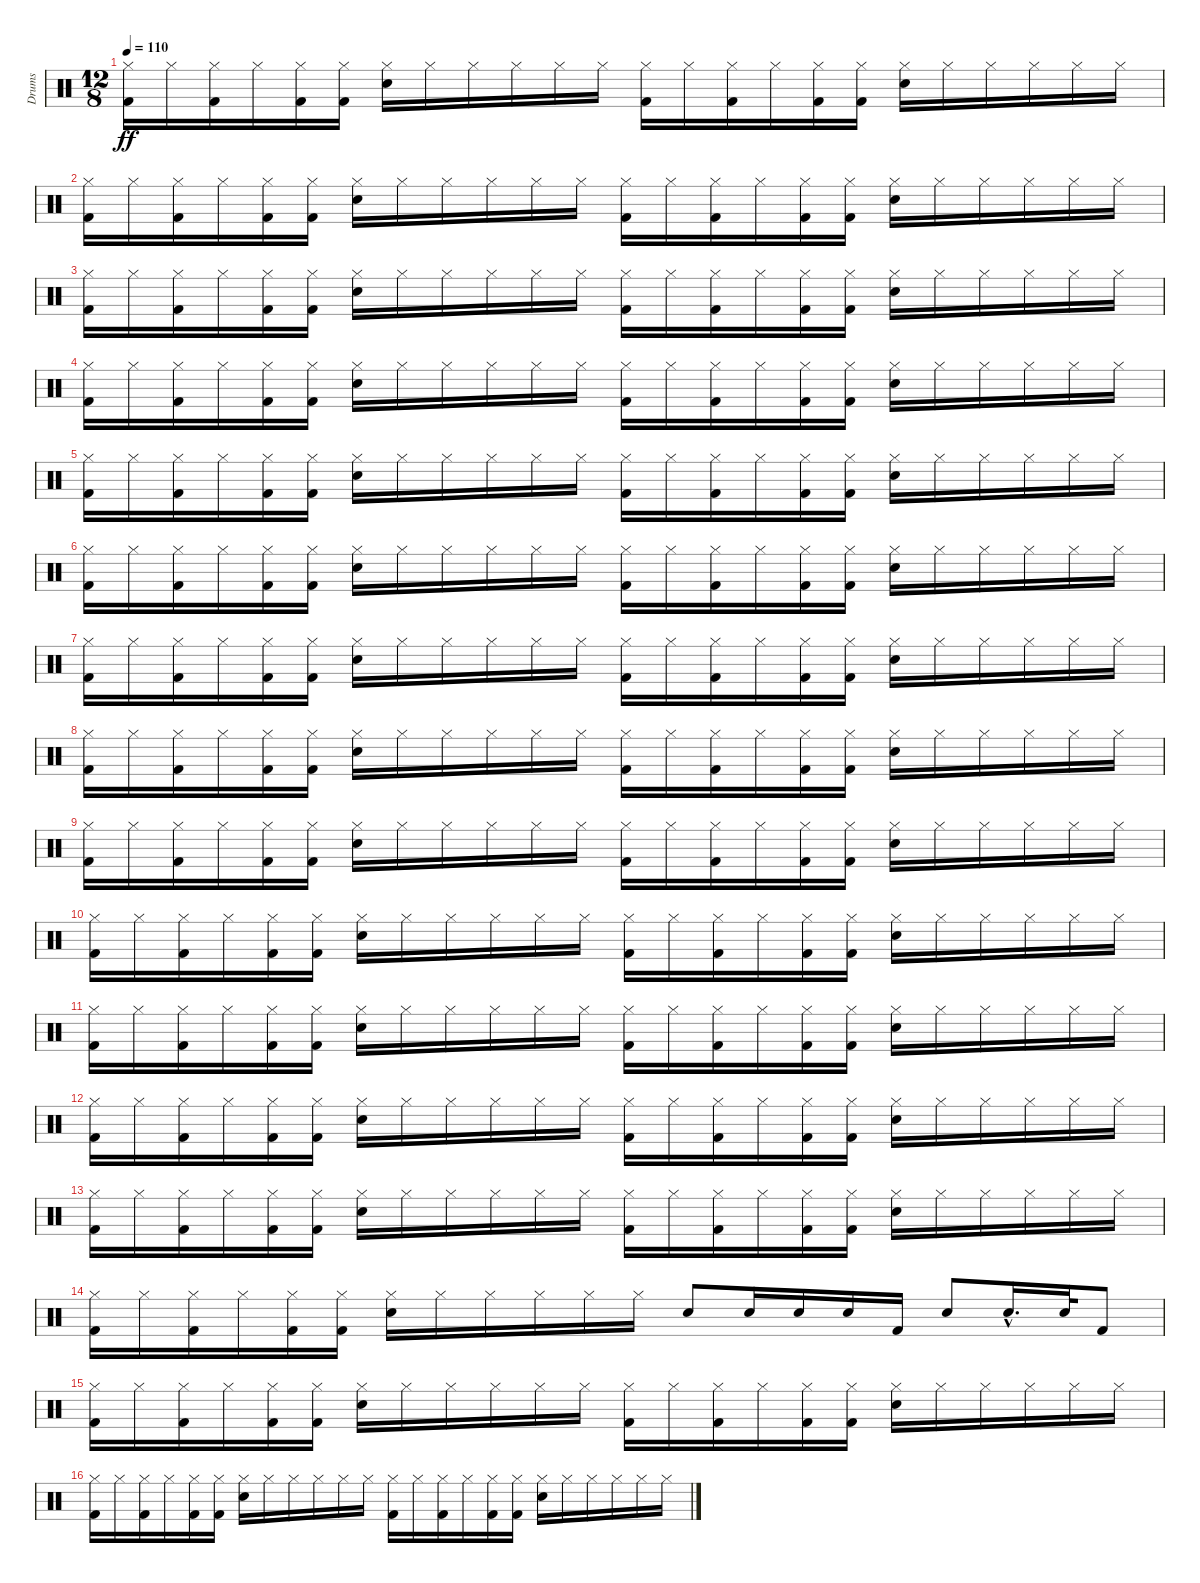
\track ("Drums" "Drums") {instrument percussion}
\staff {score}
\articulation defaults
\ts (12 8)
\tempo 110
\clef neutral
\ks c
("Kick (hit) 2" "Hi-Hat (closed)").16{dy ff} "Hi-Hat (closed)".16 ("Kick (hit) 2" "Hi-Hat (closed)").16 "Hi-Hat (closed)".16 ("Kick (hit) 2" "Hi-Hat (closed)").16 ("Kick (hit) 2" "Hi-Hat (closed)").16 ("Snare (hit) 2" "Hi-Hat (closed)").16 "Hi-Hat (closed)".16 "Hi-Hat (closed)".16 "Hi-Hat (closed)".16 "Hi-Hat (closed)".16 "Hi-Hat (closed)".16 ("Kick (hit) 2" "Hi-Hat (closed)").16 "Hi-Hat (closed)".16 ("Kick (hit) 2" "Hi-Hat (closed)").16 "Hi-Hat (closed)".16 ("Kick (hit) 2" "Hi-Hat (closed)").16 ("Kick (hit) 2" "Hi-Hat (closed)").16 ("Snare (hit) 2" "Hi-Hat (closed)").16 "Hi-Hat (closed)".16 "Hi-Hat (closed)".16 "Hi-Hat (closed)".16 "Hi-Hat (closed)".16 "Hi-Hat (closed)".16 |
("Kick (hit) 2" "Hi-Hat (closed)").16 "Hi-Hat (closed)".16 ("Kick (hit) 2" "Hi-Hat (closed)").16 "Hi-Hat (closed)".16 ("Kick (hit) 2" "Hi-Hat (closed)").16 ("Kick (hit) 2" "Hi-Hat (closed)").16 ("Snare (hit) 2" "Hi-Hat (closed)").16 "Hi-Hat (closed)".16 "Hi-Hat (closed)".16 "Hi-Hat (closed)".16 "Hi-Hat (closed)".16 "Hi-Hat (closed)".16 ("Kick (hit) 2" "Hi-Hat (closed)").16 "Hi-Hat (closed)".16 ("Kick (hit) 2" "Hi-Hat (closed)").16 "Hi-Hat (closed)".16 ("Kick (hit) 2" "Hi-Hat (closed)").16 ("Kick (hit) 2" "Hi-Hat (closed)").16 ("Snare (hit) 2" "Hi-Hat (closed)").16 "Hi-Hat (closed)".16 "Hi-Hat (closed)".16 "Hi-Hat (closed)".16 "Hi-Hat (closed)".16 "Hi-Hat (closed)".16 |
("Kick (hit) 2" "Hi-Hat (closed)").16 "Hi-Hat (closed)".16 ("Kick (hit) 2" "Hi-Hat (closed)").16 "Hi-Hat (closed)".16 ("Kick (hit) 2" "Hi-Hat (closed)").16 ("Kick (hit) 2" "Hi-Hat (closed)").16 ("Snare (hit) 2" "Hi-Hat (closed)").16 "Hi-Hat (closed)".16 "Hi-Hat (closed)".16 "Hi-Hat (closed)".16 "Hi-Hat (closed)".16 "Hi-Hat (closed)".16 ("Kick (hit) 2" "Hi-Hat (closed)").16 "Hi-Hat (closed)".16 ("Kick (hit) 2" "Hi-Hat (closed)").16 "Hi-Hat (closed)".16 ("Kick (hit) 2" "Hi-Hat (closed)").16 ("Kick (hit) 2" "Hi-Hat (closed)").16 ("Snare (hit) 2" "Hi-Hat (closed)").16 "Hi-Hat (closed)".16 "Hi-Hat (closed)".16 "Hi-Hat (closed)".16 "Hi-Hat (closed)".16 "Hi-Hat (closed)".16 |
("Kick (hit) 2" "Hi-Hat (closed)").16 "Hi-Hat (closed)".16 ("Kick (hit) 2" "Hi-Hat (closed)").16 "Hi-Hat (closed)".16 ("Kick (hit) 2" "Hi-Hat (closed)").16 ("Kick (hit) 2" "Hi-Hat (closed)").16 ("Snare (hit) 2" "Hi-Hat (closed)").16 "Hi-Hat (closed)".16 "Hi-Hat (closed)".16 "Hi-Hat (closed)".16 "Hi-Hat (closed)".16 "Hi-Hat (closed)".16 ("Kick (hit) 2" "Hi-Hat (closed)").16 "Hi-Hat (closed)".16 ("Kick (hit) 2" "Hi-Hat (closed)").16 "Hi-Hat (closed)".16 ("Kick (hit) 2" "Hi-Hat (closed)").16 ("Kick (hit) 2" "Hi-Hat (closed)").16 ("Snare (hit) 2" "Hi-Hat (closed)").16 "Hi-Hat (closed)".16 "Hi-Hat (closed)".16 "Hi-Hat (closed)".16 "Hi-Hat (closed)".16 "Hi-Hat (closed)".16 |
("Kick (hit) 2" "Hi-Hat (closed)").16 "Hi-Hat (closed)".16 ("Kick (hit) 2" "Hi-Hat (closed)").16 "Hi-Hat (closed)".16 ("Kick (hit) 2" "Hi-Hat (closed)").16 ("Kick (hit) 2" "Hi-Hat (closed)").16 ("Snare (hit) 2" "Hi-Hat (closed)").16 "Hi-Hat (closed)".16 "Hi-Hat (closed)".16 "Hi-Hat (closed)".16 "Hi-Hat (closed)".16 "Hi-Hat (closed)".16 ("Kick (hit) 2" "Hi-Hat (closed)").16 "Hi-Hat (closed)".16 ("Kick (hit) 2" "Hi-Hat (closed)").16 "Hi-Hat (closed)".16 ("Kick (hit) 2" "Hi-Hat (closed)").16 ("Kick (hit) 2" "Hi-Hat (closed)").16 ("Snare (hit) 2" "Hi-Hat (closed)").16 "Hi-Hat (closed)".16 "Hi-Hat (closed)".16 "Hi-Hat (closed)".16 "Hi-Hat (closed)".16 "Hi-Hat (closed)".16 |
("Kick (hit) 2" "Hi-Hat (closed)").16 "Hi-Hat (closed)".16 ("Kick (hit) 2" "Hi-Hat (closed)").16 "Hi-Hat (closed)".16 ("Kick (hit) 2" "Hi-Hat (closed)").16 ("Kick (hit) 2" "Hi-Hat (closed)").16 ("Snare (hit) 2" "Hi-Hat (closed)").16 "Hi-Hat (closed)".16 "Hi-Hat (closed)".16 "Hi-Hat (closed)".16 "Hi-Hat (closed)".16 "Hi-Hat (closed)".16 ("Kick (hit) 2" "Hi-Hat (closed)").16 "Hi-Hat (closed)".16 ("Kick (hit) 2" "Hi-Hat (closed)").16 "Hi-Hat (closed)".16 ("Kick (hit) 2" "Hi-Hat (closed)").16 ("Kick (hit) 2" "Hi-Hat (closed)").16 ("Snare (hit) 2" "Hi-Hat (closed)").16 "Hi-Hat (closed)".16 "Hi-Hat (closed)".16 "Hi-Hat (closed)".16 "Hi-Hat (closed)".16 "Hi-Hat (closed)".16 |
("Kick (hit) 2" "Hi-Hat (closed)").16 "Hi-Hat (closed)".16 ("Kick (hit) 2" "Hi-Hat (closed)").16 "Hi-Hat (closed)".16 ("Kick (hit) 2" "Hi-Hat (closed)").16 ("Kick (hit) 2" "Hi-Hat (closed)").16 ("Snare (hit) 2" "Hi-Hat (closed)").16 "Hi-Hat (closed)".16 "Hi-Hat (closed)".16 "Hi-Hat (closed)".16 "Hi-Hat (closed)".16 "Hi-Hat (closed)".16 ("Kick (hit) 2" "Hi-Hat (closed)").16 "Hi-Hat (closed)".16 ("Kick (hit) 2" "Hi-Hat (closed)").16 "Hi-Hat (closed)".16 ("Kick (hit) 2" "Hi-Hat (closed)").16 ("Kick (hit) 2" "Hi-Hat (closed)").16 ("Snare (hit) 2" "Hi-Hat (closed)").16 "Hi-Hat (closed)".16 "Hi-Hat (closed)".16 "Hi-Hat (closed)".16 "Hi-Hat (closed)".16 "Hi-Hat (closed)".16 |
("Kick (hit) 2" "Hi-Hat (closed)").16 "Hi-Hat (closed)".16 ("Kick (hit) 2" "Hi-Hat (closed)").16 "Hi-Hat (closed)".16 ("Kick (hit) 2" "Hi-Hat (closed)").16 ("Kick (hit) 2" "Hi-Hat (closed)").16 ("Snare (hit) 2" "Hi-Hat (closed)").16 "Hi-Hat (closed)".16 "Hi-Hat (closed)".16 "Hi-Hat (closed)".16 "Hi-Hat (closed)".16 "Hi-Hat (closed)".16 ("Kick (hit) 2" "Hi-Hat (closed)").16 "Hi-Hat (closed)".16 ("Kick (hit) 2" "Hi-Hat (closed)").16 "Hi-Hat (closed)".16 ("Kick (hit) 2" "Hi-Hat (closed)").16 ("Kick (hit) 2" "Hi-Hat (closed)").16 ("Snare (hit) 2" "Hi-Hat (closed)").16 "Hi-Hat (closed)".16 "Hi-Hat (closed)".16 "Hi-Hat (closed)".16 "Hi-Hat (closed)".16 "Hi-Hat (closed)".16 |
("Kick (hit) 2" "Hi-Hat (closed)").16 "Hi-Hat (closed)".16 ("Kick (hit) 2" "Hi-Hat (closed)").16 "Hi-Hat (closed)".16 ("Kick (hit) 2" "Hi-Hat (closed)").16 ("Kick (hit) 2" "Hi-Hat (closed)").16 ("Snare (hit) 2" "Hi-Hat (closed)").16 "Hi-Hat (closed)".16 "Hi-Hat (closed)".16 "Hi-Hat (closed)".16 "Hi-Hat (closed)".16 "Hi-Hat (closed)".16 ("Kick (hit) 2" "Hi-Hat (closed)").16 "Hi-Hat (closed)".16 ("Kick (hit) 2" "Hi-Hat (closed)").16 "Hi-Hat (closed)".16 ("Kick (hit) 2" "Hi-Hat (closed)").16 ("Kick (hit) 2" "Hi-Hat (closed)").16 ("Snare (hit) 2" "Hi-Hat (closed)").16 "Hi-Hat (closed)".16 "Hi-Hat (closed)".16 "Hi-Hat (closed)".16 "Hi-Hat (closed)".16 "Hi-Hat (closed)".16 |
("Kick (hit) 2" "Hi-Hat (closed)").16 "Hi-Hat (closed)".16 ("Kick (hit) 2" "Hi-Hat (closed)").16 "Hi-Hat (closed)".16 ("Kick (hit) 2" "Hi-Hat (closed)").16 ("Kick (hit) 2" "Hi-Hat (closed)").16 ("Snare (hit) 2" "Hi-Hat (closed)").16 "Hi-Hat (closed)".16 "Hi-Hat (closed)".16 "Hi-Hat (closed)".16 "Hi-Hat (closed)".16 "Hi-Hat (closed)".16 ("Kick (hit) 2" "Hi-Hat (closed)").16 "Hi-Hat (closed)".16 ("Kick (hit) 2" "Hi-Hat (closed)").16 "Hi-Hat (closed)".16 ("Kick (hit) 2" "Hi-Hat (closed)").16 ("Kick (hit) 2" "Hi-Hat (closed)").16 ("Snare (hit) 2" "Hi-Hat (closed)").16 "Hi-Hat (closed)".16 "Hi-Hat (closed)".16 "Hi-Hat (closed)".16 "Hi-Hat (closed)".16 "Hi-Hat (closed)".16 |
("Kick (hit) 2" "Hi-Hat (closed)").16 "Hi-Hat (closed)".16 ("Kick (hit) 2" "Hi-Hat (closed)").16 "Hi-Hat (closed)".16 ("Kick (hit) 2" "Hi-Hat (closed)").16 ("Kick (hit) 2" "Hi-Hat (closed)").16 ("Snare (hit) 2" "Hi-Hat (closed)").16 "Hi-Hat (closed)".16 "Hi-Hat (closed)".16 "Hi-Hat (closed)".16 "Hi-Hat (closed)".16 "Hi-Hat (closed)".16 ("Kick (hit) 2" "Hi-Hat (closed)").16 "Hi-Hat (closed)".16 ("Kick (hit) 2" "Hi-Hat (closed)").16 "Hi-Hat (closed)".16 ("Kick (hit) 2" "Hi-Hat (closed)").16 ("Kick (hit) 2" "Hi-Hat (closed)").16 ("Snare (hit) 2" "Hi-Hat (closed)").16 "Hi-Hat (closed)".16 "Hi-Hat (closed)".16 "Hi-Hat (closed)".16 "Hi-Hat (closed)".16 "Hi-Hat (closed)".16 |
("Kick (hit) 2" "Hi-Hat (closed)").16 "Hi-Hat (closed)".16 ("Kick (hit) 2" "Hi-Hat (closed)").16 "Hi-Hat (closed)".16 ("Kick (hit) 2" "Hi-Hat (closed)").16 ("Kick (hit) 2" "Hi-Hat (closed)").16 ("Snare (hit) 2" "Hi-Hat (closed)").16 "Hi-Hat (closed)".16 "Hi-Hat (closed)".16 "Hi-Hat (closed)".16 "Hi-Hat (closed)".16 "Hi-Hat (closed)".16 ("Kick (hit) 2" "Hi-Hat (closed)").16 "Hi-Hat (closed)".16 ("Kick (hit) 2" "Hi-Hat (closed)").16 "Hi-Hat (closed)".16 ("Kick (hit) 2" "Hi-Hat (closed)").16 ("Kick (hit) 2" "Hi-Hat (closed)").16 ("Snare (hit) 2" "Hi-Hat (closed)").16 "Hi-Hat (closed)".16 "Hi-Hat (closed)".16 "Hi-Hat (closed)".16 "Hi-Hat (closed)".16 "Hi-Hat (closed)".16 |
("Kick (hit) 2" "Hi-Hat (closed)").16 "Hi-Hat (closed)".16 ("Kick (hit) 2" "Hi-Hat (closed)").16 "Hi-Hat (closed)".16 ("Kick (hit) 2" "Hi-Hat (closed)").16 ("Kick (hit) 2" "Hi-Hat (closed)").16 ("Snare (hit) 2" "Hi-Hat (closed)").16 "Hi-Hat (closed)".16 "Hi-Hat (closed)".16 "Hi-Hat (closed)".16 "Hi-Hat (closed)".16 "Hi-Hat (closed)".16 ("Kick (hit) 2" "Hi-Hat (closed)").16 "Hi-Hat (closed)".16 ("Kick (hit) 2" "Hi-Hat (closed)").16 "Hi-Hat (closed)".16 ("Kick (hit) 2" "Hi-Hat (closed)").16 ("Kick (hit) 2" "Hi-Hat (closed)").16 ("Snare (hit) 2" "Hi-Hat (closed)").16 "Hi-Hat (closed)".16 "Hi-Hat (closed)".16 "Hi-Hat (closed)".16 "Hi-Hat (closed)".16 "Hi-Hat (closed)".16 |
("Kick (hit) 2" "Hi-Hat (closed)").16 "Hi-Hat (closed)".16 ("Kick (hit) 2" "Hi-Hat (closed)").16 "Hi-Hat (closed)".16 ("Kick (hit) 2" "Hi-Hat (closed)").16 ("Kick (hit) 2" "Hi-Hat (closed)").16 ("Snare (hit) 2" "Hi-Hat (closed)").16 "Hi-Hat (closed)".16 "Hi-Hat (closed)".16 "Hi-Hat (closed)".16 "Hi-Hat (closed)".16 "Hi-Hat (closed)".16 "Snare (hit) 2".8 "Snare (hit) 2".16 "Snare (hit) 2".16 "Snare (hit) 2".16 "Kick (hit) 2".16 "Snare (hit) 2".8 "Snare (hit) 2"{hac}.16{d} "Snare (hit) 2".32 "Kick (hit) 2".8 |
("Kick (hit) 2" "Hi-Hat (closed)").16 "Hi-Hat (closed)".16 ("Kick (hit) 2" "Hi-Hat (closed)").16 "Hi-Hat (closed)".16 ("Kick (hit) 2" "Hi-Hat (closed)").16 ("Kick (hit) 2" "Hi-Hat (closed)").16 ("Snare (hit) 2" "Hi-Hat (closed)").16 "Hi-Hat (closed)".16 "Hi-Hat (closed)".16 "Hi-Hat (closed)".16 "Hi-Hat (closed)".16 "Hi-Hat (closed)".16 ("Kick (hit) 2" "Hi-Hat (closed)").16 "Hi-Hat (closed)".16 ("Kick (hit) 2" "Hi-Hat (closed)").16 "Hi-Hat (closed)".16 ("Kick (hit) 2" "Hi-Hat (closed)").16 ("Kick (hit) 2" "Hi-Hat (closed)").16 ("Snare (hit) 2" "Hi-Hat (closed)").16 "Hi-Hat (closed)".16 "Hi-Hat (closed)".16 "Hi-Hat (closed)".16 "Hi-Hat (closed)".16 "Hi-Hat (closed)".16 |
("Kick (hit) 2" "Hi-Hat (closed)").16 "Hi-Hat (closed)".16 ("Kick (hit) 2" "Hi-Hat (closed)").16 "Hi-Hat (closed)".16 ("Kick (hit) 2" "Hi-Hat (closed)").16 ("Kick (hit) 2" "Hi-Hat (closed)").16 ("Snare (hit) 2" "Hi-Hat (closed)").16 "Hi-Hat (closed)".16 "Hi-Hat (closed)".16 "Hi-Hat (closed)".16 "Hi-Hat (closed)".16 "Hi-Hat (closed)".16 ("Kick (hit) 2" "Hi-Hat (closed)").16 "Hi-Hat (closed)".16 ("Kick (hit) 2" "Hi-Hat (closed)").16 "Hi-Hat (closed)".16 ("Kick (hit) 2" "Hi-Hat (closed)").16 ("Kick (hit) 2" "Hi-Hat (closed)").16 ("Snare (hit) 2" "Hi-Hat (closed)").16 "Hi-Hat (closed)".16 "Hi-Hat (closed)".16 "Hi-Hat (closed)".16 "Hi-Hat (closed)".16 "Hi-Hat (closed)".16
